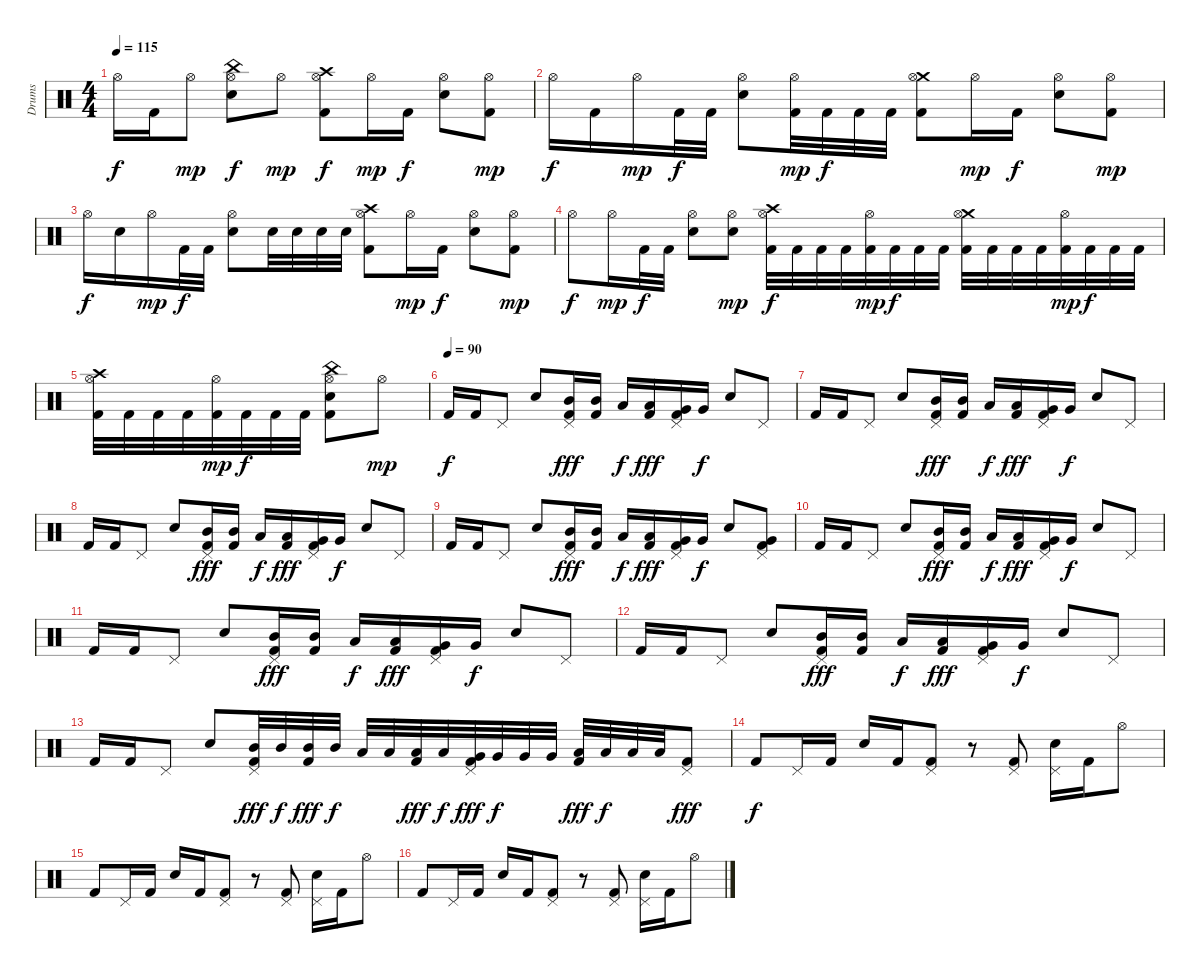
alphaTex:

\track ("Drums" "Drums") {instrument percussion}
\staff {score}
\articulation defaults
\ts (4 4)
\tempo 115
\clef neutral
\ks c "Hi-Hat (open)".16{dy f} "Kick (hit) 2".16 "Hi-Hat (open)".8{dy mp}
("China (hit)" "Hi-Hat (open)" "Electric Snare (hit)").8{dy f} "Hi-Hat (open)".8{dy mp} ("Crash high (hit)" "Hi-Hat (open)" "Kick (hit) 2").8{dy f} "Hi-Hat (open)".16{dy mp} "Kick (hit) 2".16{dy f} ("Hi-Hat (open)" "Electric Snare (hit)").8 ("Hi-Hat (open)" "Kick (hit) 2").8{dy mp} |
"Hi-Hat (open)".16{dy f} "Kick (hit) 2".16 "Hi-Hat (open)".16{dy mp} "Kick (hit) 2".32{dy f} "Kick (hit) 2".32 ("Hi-Hat (open)" "Electric Snare (hit)").8 ("Hi-Hat (open)" "Kick (hit) 2").32{dy mp} "Kick (hit) 2".32{dy f} "Kick (hit) 2".32 "Kick (hit) 2".32 ("Crash medium (hit)" "Hi-Hat (open)" "Kick (hit) 2").8 "Hi-Hat (open)".16{dy mp} "Kick (hit) 2".16{dy f} ("Hi-Hat (open)" "Electric Snare (hit)").8 ("Hi-Hat (open)" "Kick (hit) 2").8{dy mp} |
"Hi-Hat (open)".16{dy f} "Electric Snare (hit)".16 "Hi-Hat (open)".16{dy mp} "Kick (hit) 2".32{dy f} "Kick (hit) 2".32 ("Hi-Hat (open)" "Electric Snare (hit)").8 "Electric Snare (hit)".32 "Electric Snare (hit)".32 "Electric Snare (hit)".32 "Electric Snare (hit)".32 ("Crash high (hit)" "Hi-Hat (open)" "Kick (hit) 2").8 "Hi-Hat (open)".16{dy mp} "Kick (hit) 2".16{dy f} ("Hi-Hat (open)" "Electric Snare (hit)").8 ("Hi-Hat (open)" "Kick (hit) 2").8{dy mp} |
"Hi-Hat (open)".8{dy f} "Hi-Hat (open)".16{dy mp} "Kick (hit) 2".32{dy f} "Kick (hit) 2".32 ("Hi-Hat (open)" "Electric Snare (hit)").8 ("Hi-Hat (open)" "Electric Snare (hit)").8{dy mp} ("Crash high (hit)" "Hi-Hat (open)" "Kick (hit) 2").32{dy f} "Kick (hit) 2".32 "Kick (hit) 2".32 "Kick (hit) 2".32 ("Hi-Hat (open)" "Kick (hit) 2").32{dy mp} "Kick (hit) 2".32{dy f} "Kick (hit) 2".32 "Kick (hit) 2".32 ("Crash medium (hit)" "Hi-Hat (open)" "Kick (hit) 2").32 "Kick (hit) 2".32 "Kick (hit) 2".32 "Kick (hit) 2".32 ("Hi-Hat (open)" "Kick (hit) 2").32{dy mp} "Kick (hit) 2".32{dy f} "Kick (hit) 2".32 "Kick (hit) 2".32 |
("Crash high (hit)" "Hi-Hat (open)" "Kick (hit) 2").32 "Kick (hit) 2".32 "Kick (hit) 2".32 "Kick (hit) 2".32 ("Hi-Hat (open)" "Kick (hit) 2").32{dy mp} "Kick (hit) 2".32{dy f} "Kick (hit) 2".32 "Kick (hit) 2".32 ("China (hit)" "Hi-Hat (open)" "Electric Snare (hit)" "Kick (hit) 2").8 "Hi-Hat (open)".8{dy mp} |
\tempo (90)
"Kick (hit) 2".16{dy f} "Kick (hit) 2".16 "Pedal Hi-Hat (hit)".8 "Electric Snare (hit)".8 ("Pedal Hi-Hat (hit)" "Mid Tom (hit)" "Kick (hit) 2").16{dy fff} ("Mid Tom (hit)" "Kick (hit) 2").16 "Low Tom (hit)".16{dy f} ("Low Tom (hit)" "Kick (hit) 2").16{dy fff} ("Pedal Hi-Hat (hit)" "Very Low Tom (hit)" "Kick (hit) 2").16 "Very Low Tom (hit)".16{dy f} "Electric Snare (hit)".8 "Pedal Hi-Hat (hit)".8 |
"Kick (hit) 2".16 "Kick (hit) 2".16 "Pedal Hi-Hat (hit)".8 "Electric Snare (hit)".8 ("Pedal Hi-Hat (hit)" "Mid Tom (hit)" "Kick (hit) 2").16{dy fff} ("Mid Tom (hit)" "Kick (hit) 2").16 "Low Tom (hit)".16{dy f} ("Low Tom (hit)" "Kick (hit) 2").16{dy fff} ("Pedal Hi-Hat (hit)" "Very Low Tom (hit)" "Kick (hit) 2").16 "Very Low Tom (hit)".16{dy f} "Electric Snare (hit)".8 "Pedal Hi-Hat (hit)".8 |
"Kick (hit) 2".16 "Kick (hit) 2".16 "Pedal Hi-Hat (hit)".8 "Electric Snare (hit)".8 ("Pedal Hi-Hat (hit)" "Mid Tom (hit)" "Kick (hit) 2").16{dy fff} ("Mid Tom (hit)" "Kick (hit) 2").16 "Low Tom (hit)".16{dy f} ("Low Tom (hit)" "Kick (hit) 2").16{dy fff} ("Pedal Hi-Hat (hit)" "Very Low Tom (hit)" "Kick (hit) 2").16 "Very Low Tom (hit)".16{dy f} "Electric Snare (hit)".8 "Pedal Hi-Hat (hit)".8 |
"Kick (hit) 2".16 "Kick (hit) 2".16 "Pedal Hi-Hat (hit)".8 "Electric Snare (hit)".8 ("Pedal Hi-Hat (hit)" "Mid Tom (hit)" "Kick (hit) 2").16{dy fff} ("Mid Tom (hit)" "Kick (hit) 2").16 "Low Tom (hit)".16{dy f} ("Low Tom (hit)" "Kick (hit) 2").16{dy fff} ("Pedal Hi-Hat (hit)" "Very Low Tom (hit)" "Kick (hit) 2").16 "Very Low Tom (hit)".16{dy f} "Electric Snare (hit)".8 ("Pedal Hi-Hat (hit)" "Very Low Tom (hit)" "Kick (hit) 2").8 |
"Kick (hit) 2".16 "Kick (hit) 2".16 "Pedal Hi-Hat (hit)".8 "Electric Snare (hit)".8 ("Pedal Hi-Hat (hit)" "Mid Tom (hit)" "Kick (hit) 2").16{dy fff} ("Mid Tom (hit)" "Kick (hit) 2").16 "Low Tom (hit)".16{dy f} ("Low Tom (hit)" "Kick (hit) 2").16{dy fff} ("Pedal Hi-Hat (hit)" "Very Low Tom (hit)" "Kick (hit) 2").16 "Very Low Tom (hit)".16{dy f} "Electric Snare (hit)".8 "Pedal Hi-Hat (hit)".8 |
"Kick (hit) 2".16 "Kick (hit) 2".16 "Pedal Hi-Hat (hit)".8 "Electric Snare (hit)".8 ("Pedal Hi-Hat (hit)" "Mid Tom (hit)" "Kick (hit) 2").16{dy fff} ("Mid Tom (hit)" "Kick (hit) 2").16 "Low Tom (hit)".16{dy f} ("Low Tom (hit)" "Kick (hit) 2").16{dy fff} ("Pedal Hi-Hat (hit)" "Very Low Tom (hit)" "Kick (hit) 2").16 "Very Low Tom (hit)".16{dy f} "Electric Snare (hit)".8 "Pedal Hi-Hat (hit)".8 |
"Kick (hit) 2".16 "Kick (hit) 2".16 "Pedal Hi-Hat (hit)".8 "Electric Snare (hit)".8 ("Pedal Hi-Hat (hit)" "Mid Tom (hit)" "Kick (hit) 2").16{dy fff} ("Mid Tom (hit)" "Kick (hit) 2").16 "Low Tom (hit)".16{dy f} ("Low Tom (hit)" "Kick (hit) 2").16{dy fff} ("Pedal Hi-Hat (hit)" "Very Low Tom (hit)" "Kick (hit) 2").16 "Very Low Tom (hit)".16{dy f} "Electric Snare (hit)".8 "Pedal Hi-Hat (hit)".8 |
"Kick (hit) 2".16 "Kick (hit) 2".16 "Pedal Hi-Hat (hit)".8 "Electric Snare (hit)".8 ("Pedal Hi-Hat (hit)" "Mid Tom (hit)" "Kick (hit) 2").32{dy fff} "Mid Tom (hit)".32{dy f} ("Mid Tom (hit)" "Kick (hit) 2").32{dy fff} "Mid Tom (hit)".32{dy f} "Low Tom (hit)".32 "Low Tom (hit)".32 ("Low Tom (hit)" "Kick (hit) 2").32{dy fff} "Low Tom (hit)".32{dy f} ("Pedal Hi-Hat (hit)" "Very Low Tom (hit)" "Kick (hit) 2").32{dy fff} "Very Low Tom (hit)".32{dy f} "Very Low Tom (hit)".32 "Very Low Tom (hit)".32 ("Low Floor Tom (hit)" "Kick (hit) 2").32{dy fff} "Low Floor Tom (hit)".32{dy f} "Low Floor Tom (hit)".32 "Low Floor Tom (hit)".32 ("Pedal Hi-Hat (hit)" "Kick (hit) 2").8{dy fff} |
"Kick (hit) 2".8{dy f} "Pedal Hi-Hat (hit)".16 "Kick (hit) 2".16 "Electric Snare (hit)".16 "Kick (hit) 2".16 ("Pedal Hi-Hat (hit)" "Kick (hit) 2").8 r.8 ("Pedal Hi-Hat (hit)" "Kick (hit) 2").8 ("Pedal Hi-Hat (hit)" "Electric Snare (hit)").16 "Kick (hit) 2".16 "Hi-Hat (open)".8 |
"Kick (hit) 2".8 "Pedal Hi-Hat (hit)".16 "Kick (hit) 2".16 "Electric Snare (hit)".16 "Kick (hit) 2".16 ("Pedal Hi-Hat (hit)" "Kick (hit) 2").8 r.8 ("Pedal Hi-Hat (hit)" "Kick (hit) 2").8 ("Pedal Hi-Hat (hit)" "Electric Snare (hit)").16 "Kick (hit) 2".16 "Hi-Hat (open)".8 |
"Kick (hit) 2".8 "Pedal Hi-Hat (hit)".16 "Kick (hit) 2".16 "Electric Snare (hit)".16 "Kick (hit) 2".16 ("Pedal Hi-Hat (hit)" "Kick (hit) 2").8 r.8 ("Pedal Hi-Hat (hit)" "Kick (hit) 2").8 ("Pedal Hi-Hat (hit)" "Electric Snare (hit)").16 "Kick (hit) 2".16 "Hi-Hat (open)".8
